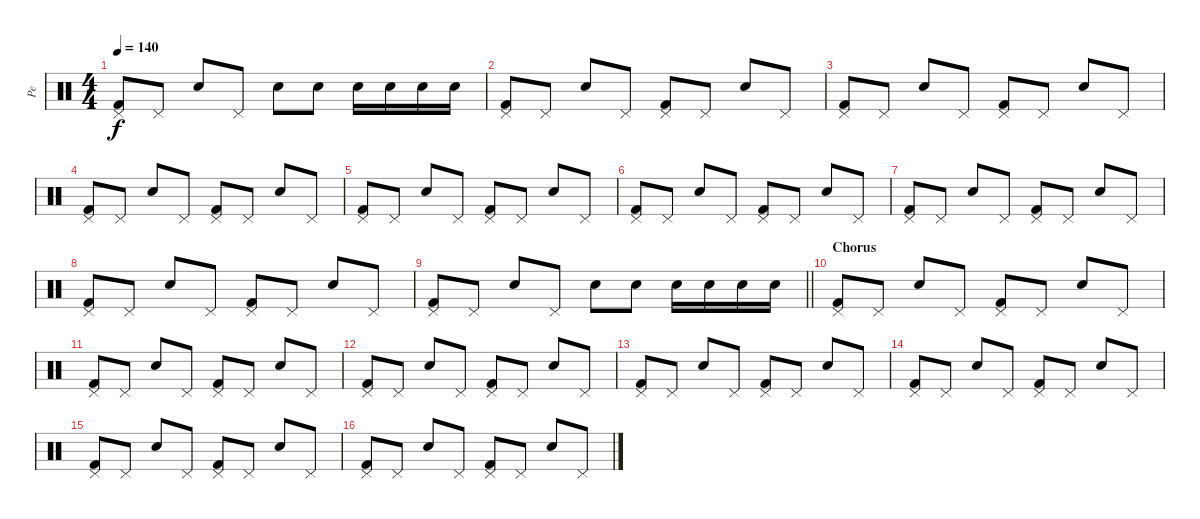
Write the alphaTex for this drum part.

\track ("Pe" "Pe") {instrument percussion}
\staff {score}
\articulation defaults
\ts (4 4)
\tempo 140
\clef neutral
\ks c
("Kick (hit) 2" "Pedal Hi-Hat (hit)").8{dy f} "Pedal Hi-Hat (hit)".8 "Snare (hit) 2".8 "Pedal Hi-Hat (hit)".8 "Snare (hit) 2".8 "Snare (hit) 2".8 "Snare (hit) 2".16 "Snare (hit) 2".16 "Snare (hit) 2".16 "Snare (hit) 2".16 |
("Kick (hit) 2" "Pedal Hi-Hat (hit)").8 "Pedal Hi-Hat (hit)".8 "Snare (hit) 2".8 "Pedal Hi-Hat (hit)".8 ("Kick (hit) 2" "Pedal Hi-Hat (hit)").8 "Pedal Hi-Hat (hit)".8 "Snare (hit) 2".8 "Pedal Hi-Hat (hit)".8 |
("Kick (hit) 2" "Pedal Hi-Hat (hit)").8 "Pedal Hi-Hat (hit)".8 "Snare (hit) 2".8 "Pedal Hi-Hat (hit)".8 ("Kick (hit) 2" "Pedal Hi-Hat (hit)").8 "Pedal Hi-Hat (hit)".8 "Snare (hit) 2".8 "Pedal Hi-Hat (hit)".8 |
("Kick (hit) 2" "Pedal Hi-Hat (hit)").8 "Pedal Hi-Hat (hit)".8 "Snare (hit) 2".8 "Pedal Hi-Hat (hit)".8 ("Kick (hit) 2" "Pedal Hi-Hat (hit)").8 "Pedal Hi-Hat (hit)".8 "Snare (hit) 2".8 "Pedal Hi-Hat (hit)".8 |
("Kick (hit) 2" "Pedal Hi-Hat (hit)").8 "Pedal Hi-Hat (hit)".8 "Snare (hit) 2".8 "Pedal Hi-Hat (hit)".8 ("Kick (hit) 2" "Pedal Hi-Hat (hit)").8 "Pedal Hi-Hat (hit)".8 "Snare (hit) 2".8 "Pedal Hi-Hat (hit)".8 |
("Kick (hit) 2" "Pedal Hi-Hat (hit)").8 "Pedal Hi-Hat (hit)".8 "Snare (hit) 2".8 "Pedal Hi-Hat (hit)".8 ("Kick (hit) 2" "Pedal Hi-Hat (hit)").8 "Pedal Hi-Hat (hit)".8 "Snare (hit) 2".8 "Pedal Hi-Hat (hit)".8 |
("Kick (hit) 2" "Pedal Hi-Hat (hit)").8 "Pedal Hi-Hat (hit)".8 "Snare (hit) 2".8 "Pedal Hi-Hat (hit)".8 ("Kick (hit) 2" "Pedal Hi-Hat (hit)").8 "Pedal Hi-Hat (hit)".8 "Snare (hit) 2".8 "Pedal Hi-Hat (hit)".8 |
("Kick (hit) 2" "Pedal Hi-Hat (hit)").8 "Pedal Hi-Hat (hit)".8 "Snare (hit) 2".8 "Pedal Hi-Hat (hit)".8 ("Kick (hit) 2" "Pedal Hi-Hat (hit)").8 "Pedal Hi-Hat (hit)".8 "Snare (hit) 2".8 "Pedal Hi-Hat (hit)".8 |
\barLineRight lightlight
("Kick (hit) 2" "Pedal Hi-Hat (hit)").8 "Pedal Hi-Hat (hit)".8 "Snare (hit) 2".8 "Pedal Hi-Hat (hit)".8 "Snare (hit) 2".8 "Snare (hit) 2".8 "Snare (hit) 2".16 "Snare (hit) 2".16 "Snare (hit) 2".16 "Snare (hit) 2".16 |
\section ("" "Chorus")
("Kick (hit) 2" "Pedal Hi-Hat (hit)").8 "Pedal Hi-Hat (hit)".8 "Snare (hit) 2".8 "Pedal Hi-Hat (hit)".8 ("Kick (hit) 2" "Pedal Hi-Hat (hit)").8 "Pedal Hi-Hat (hit)".8 "Snare (hit) 2".8 "Pedal Hi-Hat (hit)".8 |
("Kick (hit) 2" "Pedal Hi-Hat (hit)").8 "Pedal Hi-Hat (hit)".8 "Snare (hit) 2".8 "Pedal Hi-Hat (hit)".8 ("Kick (hit) 2" "Pedal Hi-Hat (hit)").8 "Pedal Hi-Hat (hit)".8 "Snare (hit) 2".8 "Pedal Hi-Hat (hit)".8 |
("Kick (hit) 2" "Pedal Hi-Hat (hit)").8 "Pedal Hi-Hat (hit)".8 "Snare (hit) 2".8 "Pedal Hi-Hat (hit)".8 ("Kick (hit) 2" "Pedal Hi-Hat (hit)").8 "Pedal Hi-Hat (hit)".8 "Snare (hit) 2".8 "Pedal Hi-Hat (hit)".8 |
("Kick (hit) 2" "Pedal Hi-Hat (hit)").8 "Pedal Hi-Hat (hit)".8 "Snare (hit) 2".8 "Pedal Hi-Hat (hit)".8 ("Kick (hit) 2" "Pedal Hi-Hat (hit)").8 "Pedal Hi-Hat (hit)".8 "Snare (hit) 2".8 "Pedal Hi-Hat (hit)".8 |
("Kick (hit) 2" "Pedal Hi-Hat (hit)").8 "Pedal Hi-Hat (hit)".8 "Snare (hit) 2".8 "Pedal Hi-Hat (hit)".8 ("Kick (hit) 2" "Pedal Hi-Hat (hit)").8 "Pedal Hi-Hat (hit)".8 "Snare (hit) 2".8 "Pedal Hi-Hat (hit)".8 |
("Kick (hit) 2" "Pedal Hi-Hat (hit)").8 "Pedal Hi-Hat (hit)".8 "Snare (hit) 2".8 "Pedal Hi-Hat (hit)".8 ("Kick (hit) 2" "Pedal Hi-Hat (hit)").8 "Pedal Hi-Hat (hit)".8 "Snare (hit) 2".8 "Pedal Hi-Hat (hit)".8 |
("Kick (hit) 2" "Pedal Hi-Hat (hit)").8 "Pedal Hi-Hat (hit)".8 "Snare (hit) 2".8 "Pedal Hi-Hat (hit)".8 ("Kick (hit) 2" "Pedal Hi-Hat (hit)").8 "Pedal Hi-Hat (hit)".8 "Snare (hit) 2".8 "Pedal Hi-Hat (hit)".8
